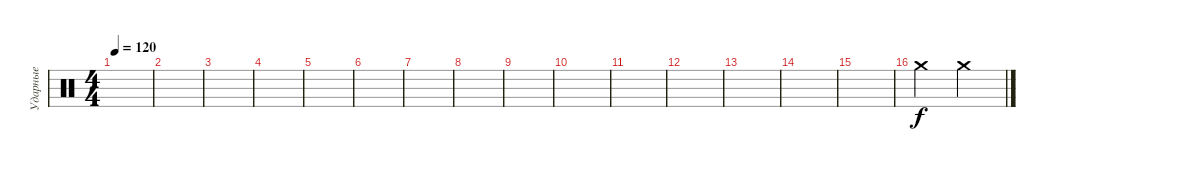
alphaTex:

\track ("Ударные" "Ударные") {instrument percussion}
\staff {score}
\articulation defaults
\ts (4 4)
\tempo 120
\clef neutral
\ks c
|
|
|
|
|
|
|
|
|
|
|
|
|
|
|
"Crash medium (hit)".2 "Crash medium (hit)".2
